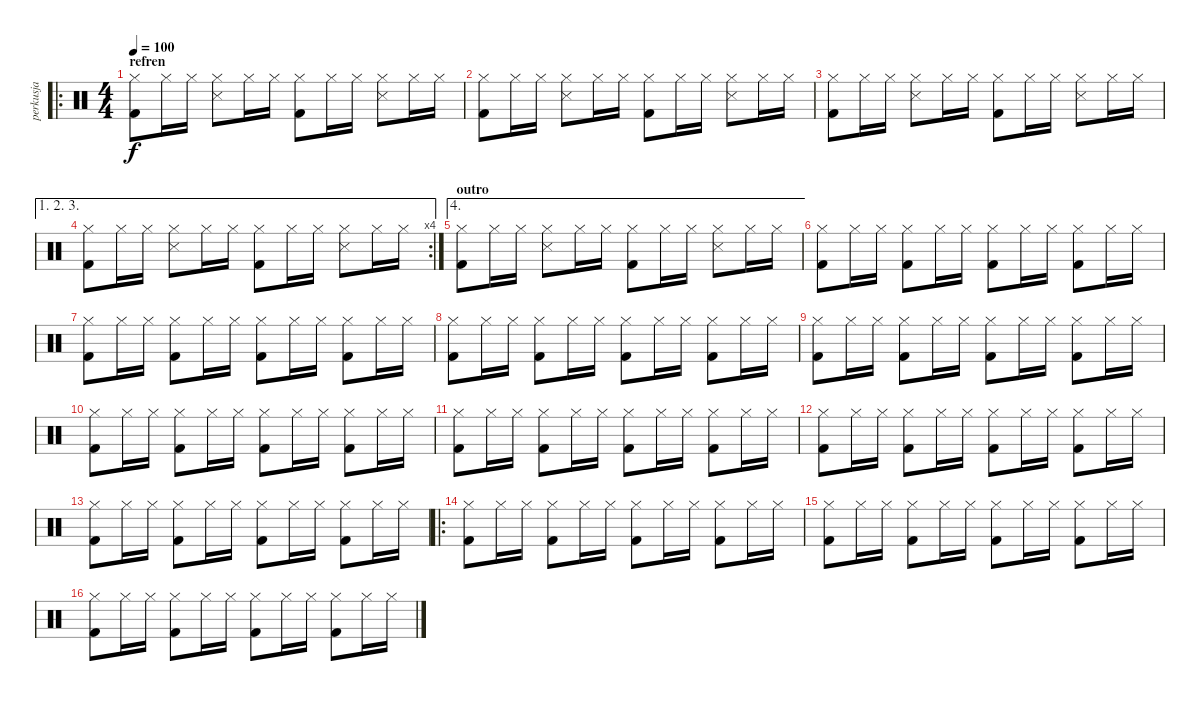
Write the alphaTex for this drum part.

\track ("perkusja" "perkusja") {instrument percussion}
\staff {score}
\articulation defaults
\ro
\ts (4 4)
\section ("" "refren")
\tempo 100
\clef neutral
\ks c
("Hi-Hat (closed)" "Kick (hit) 2").8{dy f} "Hi-Hat (closed)".16 "Hi-Hat (closed)".16 ("Hi-Hat (closed)" "Metronome (hit)").8 "Hi-Hat (closed)".16 "Hi-Hat (closed)".16 ("Hi-Hat (closed)" "Kick (hit) 2").8 "Hi-Hat (closed)".16 "Hi-Hat (closed)".16 ("Hi-Hat (closed)" "Metronome (hit)").8 "Hi-Hat (closed)".16 "Hi-Hat (closed)".16 |
("Hi-Hat (closed)" "Kick (hit) 2").8 "Hi-Hat (closed)".16 "Hi-Hat (closed)".16 ("Hi-Hat (closed)" "Metronome (hit)").8 "Hi-Hat (closed)".16 "Hi-Hat (closed)".16 ("Hi-Hat (closed)" "Kick (hit) 2").8 "Hi-Hat (closed)".16 "Hi-Hat (closed)".16 ("Hi-Hat (closed)" "Metronome (hit)").8 "Hi-Hat (closed)".16 "Hi-Hat (closed)".16 |
("Hi-Hat (closed)" "Kick (hit) 2").8 "Hi-Hat (closed)".16 "Hi-Hat (closed)".16 ("Hi-Hat (closed)" "Metronome (hit)").8 "Hi-Hat (closed)".16 "Hi-Hat (closed)".16 ("Hi-Hat (closed)" "Kick (hit) 2").8 "Hi-Hat (closed)".16 "Hi-Hat (closed)".16 ("Hi-Hat (closed)" "Metronome (hit)").8 "Hi-Hat (closed)".16 "Hi-Hat (closed)".16 |
\ae (1 2 3)
\rc 4
("Hi-Hat (closed)" "Kick (hit) 2").8 "Hi-Hat (closed)".16 "Hi-Hat (closed)".16 ("Hi-Hat (closed)" "Metronome (hit)").8 "Hi-Hat (closed)".16 "Hi-Hat (closed)".16 ("Hi-Hat (closed)" "Kick (hit) 2").8 "Hi-Hat (closed)".16 "Hi-Hat (closed)".16 ("Hi-Hat (closed)" "Metronome (hit)").8 "Hi-Hat (closed)".16 "Hi-Hat (closed)".16 |
\ae 4
\section ("" "outro")
("Hi-Hat (closed)" "Kick (hit) 2").8 "Hi-Hat (closed)".16 "Hi-Hat (closed)".16 ("Hi-Hat (closed)" "Metronome (hit)").8 "Hi-Hat (closed)".16 "Hi-Hat (closed)".16 ("Hi-Hat (closed)" "Kick (hit) 2").8 "Hi-Hat (closed)".16 "Hi-Hat (closed)".16 ("Hi-Hat (closed)" "Metronome (hit)").8 "Hi-Hat (closed)".16 "Hi-Hat (closed)".16 |
("Hi-Hat (closed)" "Kick (hit) 2").8 "Hi-Hat (closed)".16 "Hi-Hat (closed)".16 ("Hi-Hat (closed)" "Kick (hit) 2").8 "Hi-Hat (closed)".16 "Hi-Hat (closed)".16 ("Hi-Hat (closed)" "Kick (hit) 2").8 "Hi-Hat (closed)".16 "Hi-Hat (closed)".16 ("Hi-Hat (closed)" "Kick (hit) 2").8 "Hi-Hat (closed)".16 "Hi-Hat (closed)".16 |
("Hi-Hat (closed)" "Kick (hit) 2").8 "Hi-Hat (closed)".16 "Hi-Hat (closed)".16 ("Hi-Hat (closed)" "Kick (hit) 2").8 "Hi-Hat (closed)".16 "Hi-Hat (closed)".16 ("Hi-Hat (closed)" "Kick (hit) 2").8 "Hi-Hat (closed)".16 "Hi-Hat (closed)".16 ("Hi-Hat (closed)" "Kick (hit) 2").8 "Hi-Hat (closed)".16 "Hi-Hat (closed)".16 |
("Hi-Hat (closed)" "Kick (hit) 2").8 "Hi-Hat (closed)".16 "Hi-Hat (closed)".16 ("Hi-Hat (closed)" "Kick (hit) 2").8 "Hi-Hat (closed)".16 "Hi-Hat (closed)".16 ("Hi-Hat (closed)" "Kick (hit) 2").8 "Hi-Hat (closed)".16 "Hi-Hat (closed)".16 ("Hi-Hat (closed)" "Kick (hit) 2").8 "Hi-Hat (closed)".16 "Hi-Hat (closed)".16 |
("Hi-Hat (closed)" "Kick (hit) 2").8 "Hi-Hat (closed)".16 "Hi-Hat (closed)".16 ("Hi-Hat (closed)" "Kick (hit) 2").8 "Hi-Hat (closed)".16 "Hi-Hat (closed)".16 ("Hi-Hat (closed)" "Kick (hit) 2").8 "Hi-Hat (closed)".16 "Hi-Hat (closed)".16 ("Hi-Hat (closed)" "Kick (hit) 2").8 "Hi-Hat (closed)".16 "Hi-Hat (closed)".16 |
("Hi-Hat (closed)" "Kick (hit) 2").8 "Hi-Hat (closed)".16 "Hi-Hat (closed)".16 ("Hi-Hat (closed)" "Kick (hit) 2").8 "Hi-Hat (closed)".16 "Hi-Hat (closed)".16 ("Hi-Hat (closed)" "Kick (hit) 2").8 "Hi-Hat (closed)".16 "Hi-Hat (closed)".16 ("Hi-Hat (closed)" "Kick (hit) 2").8 "Hi-Hat (closed)".16 "Hi-Hat (closed)".16 |
("Hi-Hat (closed)" "Kick (hit) 2").8 "Hi-Hat (closed)".16 "Hi-Hat (closed)".16 ("Hi-Hat (closed)" "Kick (hit) 2").8 "Hi-Hat (closed)".16 "Hi-Hat (closed)".16 ("Hi-Hat (closed)" "Kick (hit) 2").8 "Hi-Hat (closed)".16 "Hi-Hat (closed)".16 ("Hi-Hat (closed)" "Kick (hit) 2").8 "Hi-Hat (closed)".16 "Hi-Hat (closed)".16 |
("Hi-Hat (closed)" "Kick (hit) 2").8 "Hi-Hat (closed)".16 "Hi-Hat (closed)".16 ("Hi-Hat (closed)" "Kick (hit) 2").8 "Hi-Hat (closed)".16 "Hi-Hat (closed)".16 ("Hi-Hat (closed)" "Kick (hit) 2").8 "Hi-Hat (closed)".16 "Hi-Hat (closed)".16 ("Hi-Hat (closed)" "Kick (hit) 2").8 "Hi-Hat (closed)".16 "Hi-Hat (closed)".16 |
("Hi-Hat (closed)" "Kick (hit) 2").8 "Hi-Hat (closed)".16 "Hi-Hat (closed)".16 ("Hi-Hat (closed)" "Kick (hit) 2").8 "Hi-Hat (closed)".16 "Hi-Hat (closed)".16 ("Hi-Hat (closed)" "Kick (hit) 2").8 "Hi-Hat (closed)".16 "Hi-Hat (closed)".16 ("Hi-Hat (closed)" "Kick (hit) 2").8 "Hi-Hat (closed)".16 "Hi-Hat (closed)".16 |
\ro
("Hi-Hat (closed)" "Kick (hit) 2").8 "Hi-Hat (closed)".16 "Hi-Hat (closed)".16 ("Hi-Hat (closed)" "Kick (hit) 2").8 "Hi-Hat (closed)".16 "Hi-Hat (closed)".16 ("Hi-Hat (closed)" "Kick (hit) 2").8 "Hi-Hat (closed)".16 "Hi-Hat (closed)".16 ("Hi-Hat (closed)" "Kick (hit) 2").8 "Hi-Hat (closed)".16 "Hi-Hat (closed)".16 |
("Hi-Hat (closed)" "Kick (hit) 2").8 "Hi-Hat (closed)".16 "Hi-Hat (closed)".16 ("Hi-Hat (closed)" "Kick (hit) 2").8 "Hi-Hat (closed)".16 "Hi-Hat (closed)".16 ("Hi-Hat (closed)" "Kick (hit) 2").8 "Hi-Hat (closed)".16 "Hi-Hat (closed)".16 ("Hi-Hat (closed)" "Kick (hit) 2").8 "Hi-Hat (closed)".16 "Hi-Hat (closed)".16 |
("Hi-Hat (closed)" "Kick (hit) 2").8 "Hi-Hat (closed)".16 "Hi-Hat (closed)".16 ("Hi-Hat (closed)" "Kick (hit) 2").8 "Hi-Hat (closed)".16 "Hi-Hat (closed)".16 ("Hi-Hat (closed)" "Kick (hit) 2").8 "Hi-Hat (closed)".16 "Hi-Hat (closed)".16 ("Hi-Hat (closed)" "Kick (hit) 2").8 "Hi-Hat (closed)".16 "Hi-Hat (closed)".16
